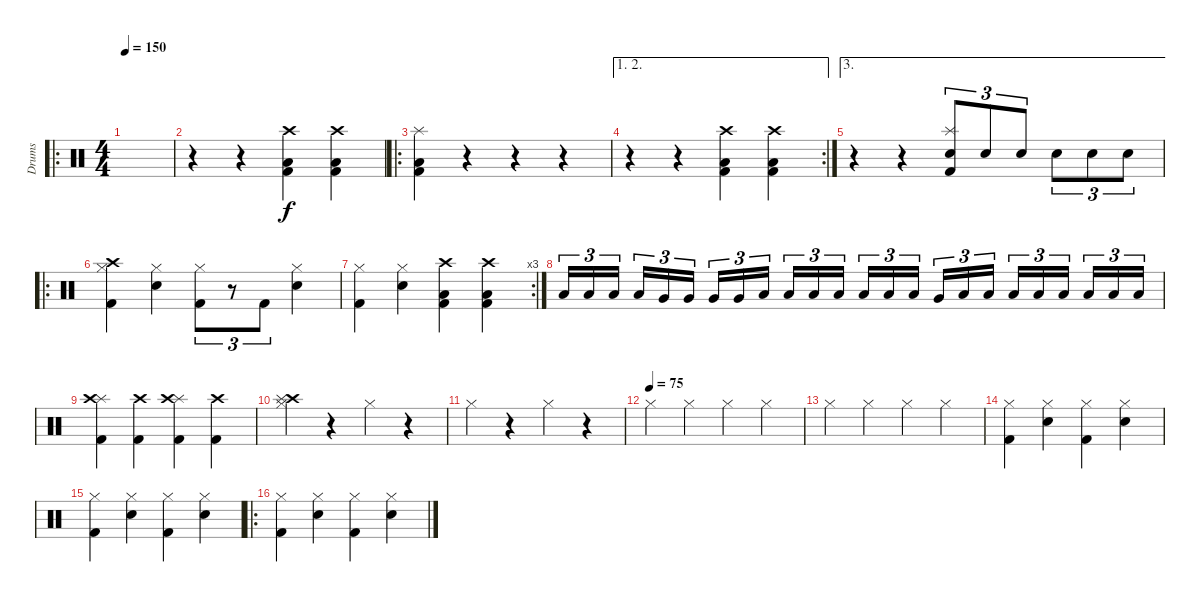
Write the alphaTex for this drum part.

\track ("Drums" "Drums") {instrument percussion}
\staff {score}
\articulation defaults
\ro
\ts (4 4)
\tempo 150
\clef neutral
\ks c
|
r.4 r.4 ("Crash high (hit)" "Low Floor Tom (hit)" "Kick (hit) 2").4 ("Crash high (hit)" "Low Floor Tom (hit)" "Kick (hit) 2").4 |
\ro
("Splash (hit)" "Low Floor Tom (hit)" "Kick (hit) 2").4 r.4 r.4 r.4 |
\ae (1 2)
\rc 2
r.4 r.4 ("Crash high (hit)" "Low Floor Tom (hit)" "Kick (hit) 2").4 ("Crash high (hit)" "Low Floor Tom (hit)" "Kick (hit) 2").4 |
\ae 3
r.4 r.4 ("Snare (hit) 2" "Kick (hit) 2" "Splash (hit)").8{tu (3 2)} "Snare (hit) 2".8{tu (3 2)} "Snare (hit) 2".8{tu (3 2)} "Snare (hit) 2".8{tu (3 2)} "Snare (hit) 2".8{tu (3 2)} "Snare (hit) 2".8{tu (3 2)} |
\ro
("Kick (hit) 2" "Hi-Hat (closed)" "Crash high (hit)").4 ("Snare (hit) 2" "Hi-Hat (closed)").4 ("Kick (hit) 2" "Hi-Hat (closed)").8{tu (3 2)} r.8{tu (3 2)} "Kick (hit) 2".8{tu (3 2)} ("Snare (hit) 2" "Hi-Hat (closed)").4 |
\rc 3
("Kick (hit) 2" "Hi-Hat (closed)").4 ("Snare (hit) 2" "Hi-Hat (closed)").4 ("Crash high (hit)" "Low Floor Tom (hit)" "Kick (hit) 2").4 ("Crash high (hit)" "Low Floor Tom (hit)" "Kick (hit) 2").4 |
"Low Floor Tom (hit)".16{tu (3 2)} "Low Floor Tom (hit)".16{tu (3 2)} "Low Floor Tom (hit)".16{tu (3 2)} "Low Floor Tom (hit)".16{tu (3 2)} "Very Low Tom (hit)".16{tu (3 2)} "Very Low Tom (hit)".16{tu (3 2)} "Very Low Tom (hit)".16{tu (3 2)} "Very Low Tom (hit)".16{tu (3 2)} "Low Tom (hit)".16{tu (3 2)} "Low Tom (hit)".16{tu (3 2)} "Low Tom (hit)".16{tu (3 2)} "Low Tom (hit)".16{tu (3 2)} "Low Floor Tom (hit)".16{tu (3 2)} "Low Floor Tom (hit)".16{tu (3 2)} "Low Tom (hit)".16{tu (3 2)} "Very Low Tom (hit)".16{tu (3 2)} "Low Floor Tom (hit)".16{tu (3 2)} "Low Floor Tom (hit)".16{tu (3 2)} "Low Floor Tom (hit)".16{tu (3 2)} "Low Floor Tom (hit)".16{tu (3 2)} "Low Floor Tom (hit)".16{tu (3 2)} "Low Floor Tom (hit)".16{tu (3 2)} "Low Floor Tom (hit)".16{tu (3 2)} "Low Floor Tom (hit)".16{tu (3 2)} |
("Splash (hit)" "Crash high (hit)" "Kick (hit) 2").4 ("Crash high (hit)" "Kick (hit) 2").4 ("Splash (hit)" "Crash high (hit)" "Kick (hit) 2").4 ("Crash high (hit)" "Kick (hit) 2").4 |
("Crash high (hit)" "Splash (hit)" "Hi-Hat (closed)").4 r.4 "Hi-Hat (closed)".4 r.4 |
"Hi-Hat (closed)".4 r.4 "Hi-Hat (closed)".4 r.4 |
\tempo (75)
"Hi-Hat (closed)".4 "Hi-Hat (closed)".4 "Hi-Hat (closed)".4 "Hi-Hat (closed)".4 |
"Hi-Hat (closed)".4 "Hi-Hat (closed)".4 "Hi-Hat (closed)".4 "Hi-Hat (closed)".4 |
("Hi-Hat (closed)" "Kick (hit) 2").4 ("Hi-Hat (closed)" "Snare (hit) 2").4 ("Hi-Hat (closed)" "Kick (hit) 2").4 ("Hi-Hat (closed)" "Snare (hit) 2").4 |
("Hi-Hat (closed)" "Kick (hit) 2").4 ("Hi-Hat (closed)" "Snare (hit) 2").4 ("Hi-Hat (closed)" "Kick (hit) 2").4 ("Hi-Hat (closed)" "Snare (hit) 2").4 |
\ro
("Hi-Hat (closed)" "Kick (hit) 2").4 ("Hi-Hat (closed)" "Snare (hit) 2").4 ("Hi-Hat (closed)" "Kick (hit) 2").4 ("Hi-Hat (closed)" "Snare (hit) 2").4
